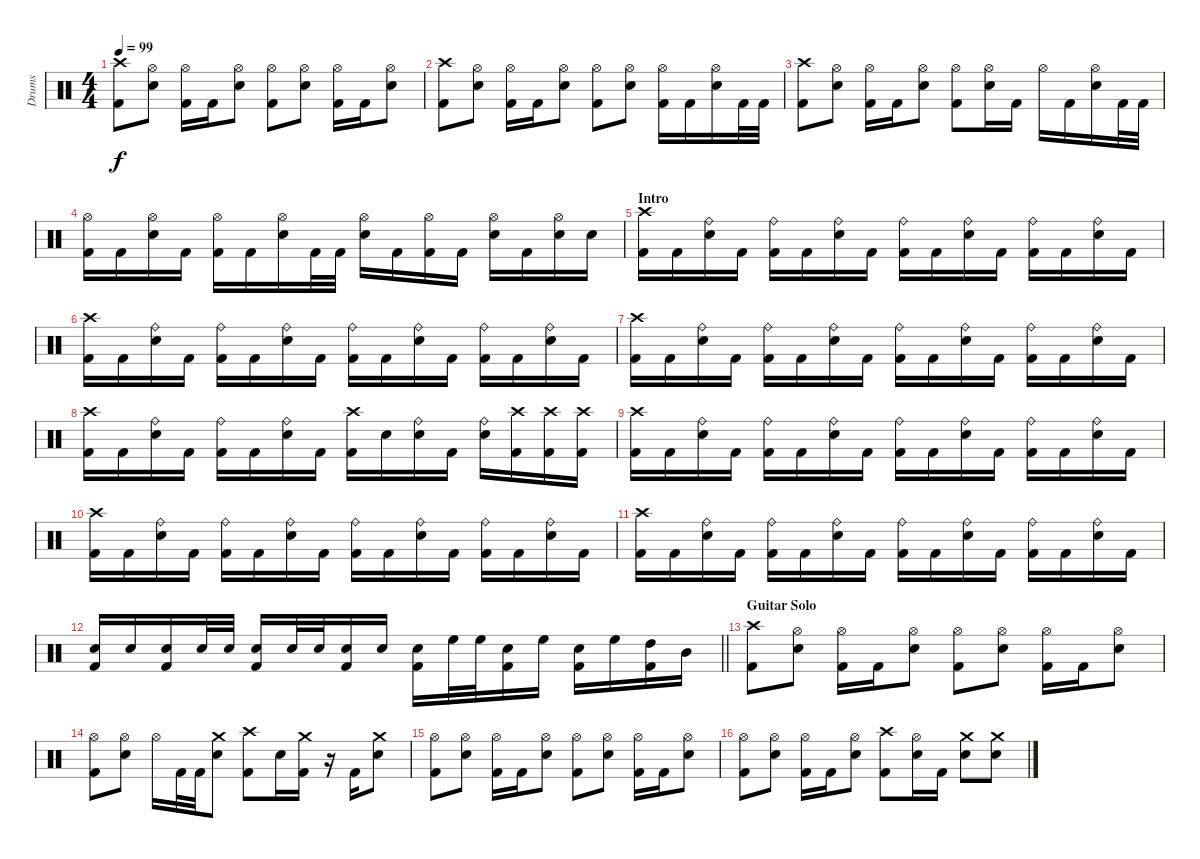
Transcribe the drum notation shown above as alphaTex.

\track ("Drums" "Drums") {instrument percussion}
\staff {score}
\articulation defaults
\ts (4 4)
\tempo 99
\clef neutral
\ks c
("Kick (hit) 2" "Crash high (hit)").8{dy f} ("Electric Snare (hit)" "Hi-Hat (open)").8 ("Kick (hit) 2" "Hi-Hat (open)").16 "Kick (hit) 2".16 ("Electric Snare (hit)" "Hi-Hat (open)").8 ("Kick (hit) 2" "Hi-Hat (open)").8 ("Electric Snare (hit)" "Hi-Hat (open)").8 ("Kick (hit) 2" "Hi-Hat (open)").16 "Kick (hit) 2".16 ("Electric Snare (hit)" "Hi-Hat (open)").8 |
("Kick (hit) 2" "Crash high (hit)").8 ("Electric Snare (hit)" "Hi-Hat (open)").8 ("Kick (hit) 2" "Hi-Hat (open)").16 "Kick (hit) 2".16 ("Electric Snare (hit)" "Hi-Hat (open)").8 ("Kick (hit) 2" "Hi-Hat (open)").8 ("Electric Snare (hit)" "Hi-Hat (open)").8 ("Kick (hit) 2" "Hi-Hat (open)").16 "Kick (hit) 2".16 ("Electric Snare (hit)" "Hi-Hat (open)").16 "Kick (hit) 2".32 "Kick (hit) 2".32 |
("Kick (hit) 2" "Crash high (hit)").8 ("Electric Snare (hit)" "Hi-Hat (open)").8 ("Kick (hit) 2" "Hi-Hat (open)").16 "Kick (hit) 2".16 ("Electric Snare (hit)" "Hi-Hat (open)").8 ("Kick (hit) 2" "Hi-Hat (open)").8 ("Electric Snare (hit)" "Hi-Hat (open)").16 "Kick (hit) 2".16 "Hi-Hat (open)".16 "Kick (hit) 2".16 ("Electric Snare (hit)" "Hi-Hat (open)").16 "Kick (hit) 2".32 "Kick (hit) 2".32 |
("Kick (hit) 2" "Hi-Hat (open)").16 "Kick (hit) 2".16 ("Electric Snare (hit)" "Hi-Hat (open)").16 "Kick (hit) 2".16 ("Kick (hit) 2" "Hi-Hat (open)").16 "Kick (hit) 2".16 ("Electric Snare (hit)" "Hi-Hat (open)").16 "Kick (hit) 2".32 "Kick (hit) 2".32 ("Electric Snare (hit)" "Hi-Hat (open)").16 "Kick (hit) 2".16 ("Kick (hit) 2" "Hi-Hat (open)").16 "Kick (hit) 2".16 ("Electric Snare (hit)" "Hi-Hat (open)").16 "Kick (hit) 2".16 ("Electric Snare (hit)" "Hi-Hat (open)").16 "Electric Snare (hit)".16 |
\section ("" "Intro")
("Kick (hit) 2" "Crash high (hit)").16 "Kick (hit) 2".16 ("Electric Snare (hit)" "Ride (bell)").16 "Kick (hit) 2".16 ("Kick (hit) 2" "Ride (bell)").16 "Kick (hit) 2".16 ("Electric Snare (hit)" "Ride (bell)").16 "Kick (hit) 2".16 ("Kick (hit) 2" "Ride (bell)").16 "Kick (hit) 2".16 ("Electric Snare (hit)" "Ride (bell)").16 "Kick (hit) 2".16 ("Kick (hit) 2" "Ride (bell)").16 "Kick (hit) 2".16 ("Electric Snare (hit)" "Ride (bell)").16 "Kick (hit) 2".16 |
("Kick (hit) 2" "Crash high (hit)").16 "Kick (hit) 2".16 ("Electric Snare (hit)" "Ride (bell)").16 "Kick (hit) 2".16 ("Kick (hit) 2" "Ride (bell)").16 "Kick (hit) 2".16 ("Electric Snare (hit)" "Ride (bell)").16 "Kick (hit) 2".16 ("Kick (hit) 2" "Ride (bell)").16 "Kick (hit) 2".16 ("Electric Snare (hit)" "Ride (bell)").16 "Kick (hit) 2".16 ("Kick (hit) 2" "Ride (bell)").16 "Kick (hit) 2".16 ("Electric Snare (hit)" "Ride (bell)").16 "Kick (hit) 2".16 |
("Kick (hit) 2" "Crash high (hit)").16 "Kick (hit) 2".16 ("Electric Snare (hit)" "Ride (bell)").16 "Kick (hit) 2".16 ("Kick (hit) 2" "Ride (bell)").16 "Kick (hit) 2".16 ("Electric Snare (hit)" "Ride (bell)").16 "Kick (hit) 2".16 ("Kick (hit) 2" "Ride (bell)").16 "Kick (hit) 2".16 ("Electric Snare (hit)" "Ride (bell)").16 "Kick (hit) 2".16 ("Kick (hit) 2" "Ride (bell)").16 "Kick (hit) 2".16 ("Electric Snare (hit)" "Ride (bell)").16 "Kick (hit) 2".16 |
("Kick (hit) 2" "Crash high (hit)").16 "Kick (hit) 2".16 ("Electric Snare (hit)" "Ride (bell)").16 "Kick (hit) 2".16 ("Kick (hit) 2" "Ride (bell)").16 "Kick (hit) 2".16 ("Electric Snare (hit)" "Ride (bell)").16 "Kick (hit) 2".16 ("Kick (hit) 2" "Crash high (hit)").16 "Electric Snare (hit)".16 ("Electric Snare (hit)" "Ride (bell)").16 "Kick (hit) 2".16 ("Electric Snare (hit)" "Ride (bell)").16 ("Kick (hit) 2" "Crash high (hit)").16 ("Kick (hit) 2" "Crash high (hit)").16 ("Kick (hit) 2" "Crash high (hit)").16 |
("Kick (hit) 2" "Crash high (hit)").16 "Kick (hit) 2".16 ("Electric Snare (hit)" "Ride (bell)").16 "Kick (hit) 2".16 ("Kick (hit) 2" "Ride (bell)").16 "Kick (hit) 2".16 ("Electric Snare (hit)" "Ride (bell)").16 "Kick (hit) 2".16 ("Kick (hit) 2" "Ride (bell)").16 "Kick (hit) 2".16 ("Electric Snare (hit)" "Ride (bell)").16 "Kick (hit) 2".16 ("Kick (hit) 2" "Ride (bell)").16 "Kick (hit) 2".16 ("Electric Snare (hit)" "Ride (bell)").16 "Kick (hit) 2".16 |
("Kick (hit) 2" "Crash high (hit)").16 "Kick (hit) 2".16 ("Electric Snare (hit)" "Ride (bell)").16 "Kick (hit) 2".16 ("Kick (hit) 2" "Ride (bell)").16 "Kick (hit) 2".16 ("Electric Snare (hit)" "Ride (bell)").16 "Kick (hit) 2".16 ("Kick (hit) 2" "Ride (bell)").16 "Kick (hit) 2".16 ("Electric Snare (hit)" "Ride (bell)").16 "Kick (hit) 2".16 ("Kick (hit) 2" "Ride (bell)").16 "Kick (hit) 2".16 ("Electric Snare (hit)" "Ride (bell)").16 "Kick (hit) 2".16 |
("Kick (hit) 2" "Crash high (hit)").16 "Kick (hit) 2".16 ("Electric Snare (hit)" "Ride (bell)").16 "Kick (hit) 2".16 ("Kick (hit) 2" "Ride (bell)").16 "Kick (hit) 2".16 ("Electric Snare (hit)" "Ride (bell)").16 "Kick (hit) 2".16 ("Kick (hit) 2" "Ride (bell)").16 "Kick (hit) 2".16 ("Electric Snare (hit)" "Ride (bell)").16 "Kick (hit) 2".16 ("Kick (hit) 2" "Ride (bell)").16 "Kick (hit) 2".16 ("Electric Snare (hit)" "Ride (bell)").16 "Kick (hit) 2".16 |
\barLineRight lightlight
("Electric Snare (hit)" "Kick (hit) 2").16 "Electric Snare (hit)".16 ("Electric Snare (hit)" "Kick (hit) 2").16 "Electric Snare (hit)".32 "Electric Snare (hit)".32 ("Electric Snare (hit)" "Kick (hit) 2").16 "Electric Snare (hit)".32 "Electric Snare (hit)".32 ("Electric Snare (hit)" "Kick (hit) 2").16 "Electric Snare (hit)".16 ("Electric Snare (hit)" "Kick (hit) 2").16 "High Floor Tom (hit)".32 "High Floor Tom (hit)".32 ("Electric Snare (hit)" "Kick (hit) 2").16 "High Floor Tom (hit)".16 ("Electric Snare (hit)" "Kick (hit) 2").16 "High Floor Tom (hit)".16 ("High Tom (hit)" "Kick (hit) 2").16 "Mid Tom (hit)".16 |
\section ("" "Guitar Solo")
("Kick (hit) 2" "Crash high (hit)").8 ("Electric Snare (hit)" "Hi-Hat (open)").8 ("Kick (hit) 2" "Hi-Hat (open)").16 "Kick (hit) 2".16 ("Electric Snare (hit)" "Hi-Hat (open)").8 ("Kick (hit) 2" "Hi-Hat (open)").8 ("Electric Snare (hit)" "Hi-Hat (open)").8 ("Kick (hit) 2" "Hi-Hat (open)").16 "Kick (hit) 2".16 ("Electric Snare (hit)" "Hi-Hat (open)").8 |
("Kick (hit) 2" "Hi-Hat (open)").8 ("Electric Snare (hit)" "Hi-Hat (open)").8 "Hi-Hat (open)".16 "Kick (hit) 2".32 "Kick (hit) 2".32 ("Electric Snare (hit)" "Crash medium (hit)").8 ("Kick (hit) 2" "Crash high (hit)").8 "Electric Snare (hit)".16 ("Kick (hit) 2" "Crash medium (hit)").16 r.16 "Kick (hit) 2".16 ("Electric Snare (hit)" "Crash medium (hit)").8 |
("Kick (hit) 2" "Hi-Hat (open)").8 ("Electric Snare (hit)" "Hi-Hat (open)").8 ("Kick (hit) 2" "Hi-Hat (open)").16 "Kick (hit) 2".16 ("Electric Snare (hit)" "Hi-Hat (open)").8 ("Kick (hit) 2" "Hi-Hat (open)").8 ("Electric Snare (hit)" "Hi-Hat (open)").8 ("Kick (hit) 2" "Hi-Hat (open)").16 "Kick (hit) 2".16 ("Electric Snare (hit)" "Hi-Hat (open)").8 |
("Kick (hit) 2" "Hi-Hat (open)").8 ("Electric Snare (hit)" "Hi-Hat (open)").8 ("Kick (hit) 2" "Hi-Hat (open)").16 "Kick (hit) 2".16 ("Electric Snare (hit)" "Hi-Hat (open)").8 ("Kick (hit) 2" "Crash high (hit)").8 ("Electric Snare (hit)" "Hi-Hat (open)").16 "Kick (hit) 2".16 ("Electric Snare (hit)" "Crash medium (hit)").8 ("Electric Snare (hit)" "Crash medium (hit)").8
